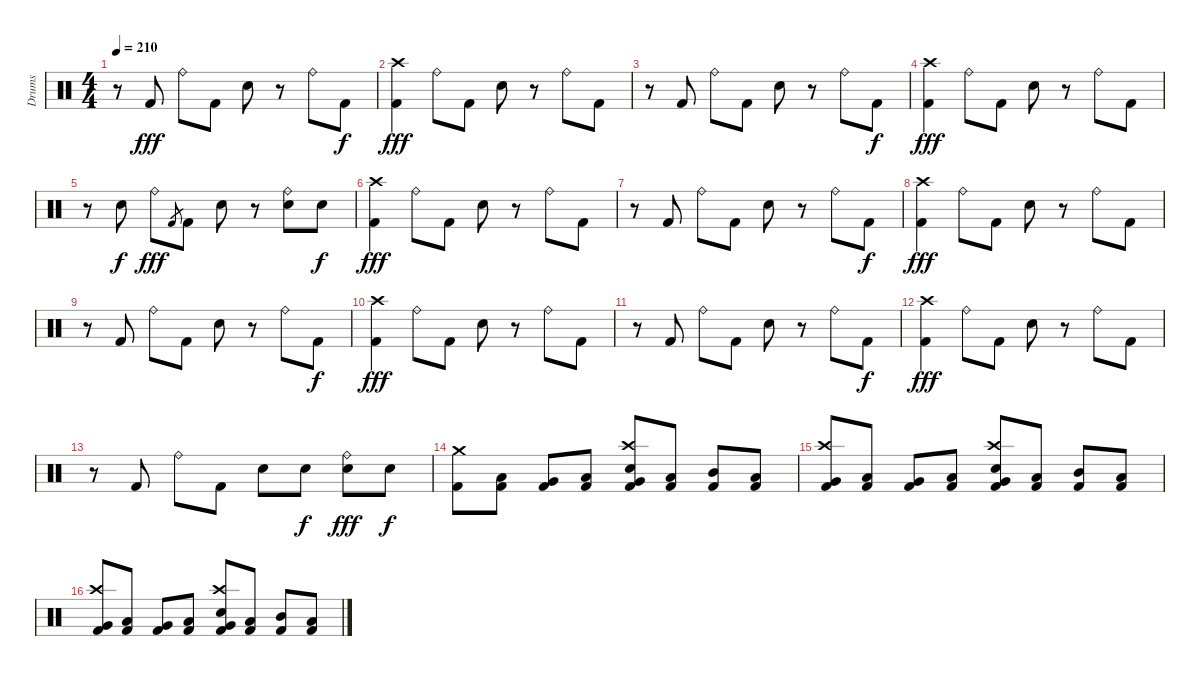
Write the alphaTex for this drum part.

\track ("Drums" "Drums") {instrument percussion}
\staff {score}
\articulation defaults
\ts (4 4)
\tempo 210
\clef neutral
\ks c
r.8{dy fff} "Kick (hit) 2".8 "Ride (bell)".8 "Kick (hit) 2".8 "Electric Snare (hit)".8 r.8 "Ride (bell)".8 "Kick (hit) 2".8{dy f} |
("Crash high (hit)" "Kick (hit) 2").4{dy fff} "Ride (bell)".8 "Kick (hit) 2".8 "Electric Snare (hit)".8 r.8 "Ride (bell)".8 "Kick (hit) 2".8 |
r.8 "Kick (hit) 2".8 "Ride (bell)".8 "Kick (hit) 2".8 "Electric Snare (hit)".8 r.8 "Ride (bell)".8 "Kick (hit) 2".8{dy f} |
("Crash high (hit)" "Kick (hit) 2").4{dy fff} "Ride (bell)".8 "Kick (hit) 2".8 "Electric Snare (hit)".8 r.8 "Ride (bell)".8 "Kick (hit) 2".8 |
r.8 "Electric Snare (hit)".8{dy f} "Ride (bell)".8{dy fff} "Kick (hit) 2".8{gr} "Kick (hit) 2".8 "Electric Snare (hit)".8 r.8 ("Ride (bell)" "Electric Snare (hit)").8 "Electric Snare (hit)".8{dy f} |
("Crash high (hit)" "Kick (hit) 2").4{dy fff} "Ride (bell)".8 "Kick (hit) 2".8 "Electric Snare (hit)".8 r.8 "Ride (bell)".8 "Kick (hit) 2".8 |
r.8 "Kick (hit) 2".8 "Ride (bell)".8 "Kick (hit) 2".8 "Electric Snare (hit)".8 r.8 "Ride (bell)".8 "Kick (hit) 2".8{dy f} |
("Crash high (hit)" "Kick (hit) 2").4{dy fff} "Ride (bell)".8 "Kick (hit) 2".8 "Electric Snare (hit)".8 r.8 "Ride (bell)".8 "Kick (hit) 2".8 |
r.8 "Kick (hit) 2".8 "Ride (bell)".8 "Kick (hit) 2".8 "Electric Snare (hit)".8 r.8 "Ride (bell)".8 "Kick (hit) 2".8{dy f} |
("Crash high (hit)" "Kick (hit) 2").4{dy fff} "Ride (bell)".8 "Kick (hit) 2".8 "Electric Snare (hit)".8 r.8 "Ride (bell)".8 "Kick (hit) 2".8 |
r.8 "Kick (hit) 2".8 "Ride (bell)".8 "Kick (hit) 2".8 "Electric Snare (hit)".8 r.8 "Ride (bell)".8 "Kick (hit) 2".8{dy f} |
("Crash high (hit)" "Kick (hit) 2").4{dy fff} "Ride (bell)".8 "Kick (hit) 2".8 "Electric Snare (hit)".8 r.8 "Ride (bell)".8 "Kick (hit) 2".8 |
r.8 "Kick (hit) 2".8 "Ride (bell)".8 "Kick (hit) 2".8 "Electric Snare (hit)".8 "Electric Snare (hit)".8{dy f} ("Ride (bell)" "Electric Snare (hit)").8{dy fff} "Electric Snare (hit)".8{dy f} |
("Crash medium (hit)" "Kick (hit) 2").8 ("Low Tom (hit)" "Kick (hit) 2").8 ("Very Low Tom (hit)" "Kick (hit) 2").8 ("Low Floor Tom (hit)" "Kick (hit) 2").8 ("Crash high (hit)" "Very Low Tom (hit)" "Electric Snare (hit)" "Kick (hit) 2").8 ("Low Tom (hit)" "Kick (hit) 2").8 ("Mid Tom (hit)" "Kick (hit) 2").8 ("Low Tom (hit)" "Kick (hit) 2").8 |
("Crash high (hit)" "Very Low Tom (hit)" "Kick (hit) 2").8 ("Low Tom (hit)" "Kick (hit) 2").8 ("Very Low Tom (hit)" "Kick (hit) 2").8 ("Low Floor Tom (hit)" "Kick (hit) 2").8 ("Crash high (hit)" "Very Low Tom (hit)" "Electric Snare (hit)" "Kick (hit) 2").8 ("Low Tom (hit)" "Kick (hit) 2").8 ("Mid Tom (hit)" "Kick (hit) 2").8 ("Low Tom (hit)" "Kick (hit) 2").8 |
("Crash high (hit)" "Very Low Tom (hit)" "Kick (hit) 2").8 ("Low Tom (hit)" "Kick (hit) 2").8 ("Very Low Tom (hit)" "Kick (hit) 2").8 ("Low Floor Tom (hit)" "Kick (hit) 2").8 ("Crash high (hit)" "Very Low Tom (hit)" "Electric Snare (hit)" "Kick (hit) 2").8 ("Low Tom (hit)" "Kick (hit) 2").8 ("Mid Tom (hit)" "Kick (hit) 2").8 ("Low Tom (hit)" "Kick (hit) 2").8
